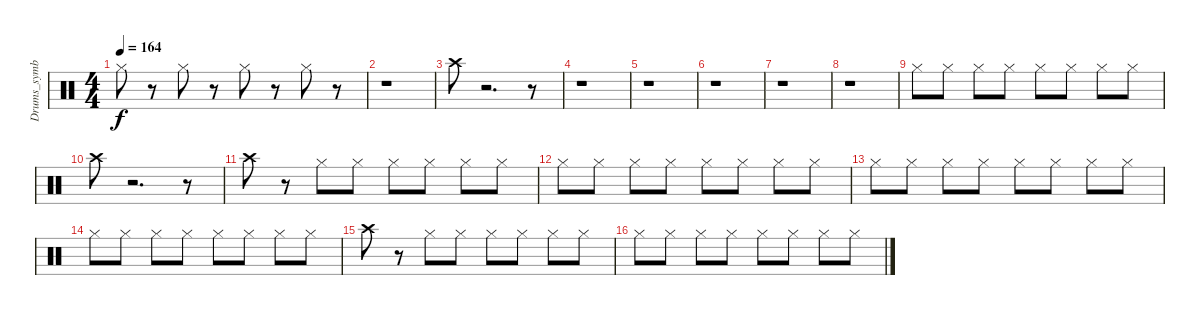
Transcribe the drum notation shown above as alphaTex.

\track ("Drums_symbal" "Drums_symb") {instrument percussion}
\staff {score}
\articulation defaults
\ts (4 4)
\tempo 164
\clef neutral
\ks c "Hi-Hat (closed)".8{dy f}
r.8 "Hi-Hat (closed)".8 r.8 "Hi-Hat (closed)".8 r.8 "Hi-Hat (closed)".8 r.8 |
r.1 |
"Crash high (hit)".8 r.2{d} r.8 |
r.1 |
r.1 |
r.1 |
r.1 |
r.1 |
"Hi-Hat (closed)".8 "Hi-Hat (closed)".8 "Hi-Hat (closed)".8 "Hi-Hat (closed)".8 "Hi-Hat (closed)".8 "Hi-Hat (closed)".8 "Hi-Hat (closed)".8 "Hi-Hat (closed)".8 |
"Crash high (hit)".8 r.2{d} r.8 |
"Crash high (hit)".8 r.8 "Hi-Hat (closed)".8 "Hi-Hat (closed)".8 "Hi-Hat (closed)".8 "Hi-Hat (closed)".8 "Hi-Hat (closed)".8 "Hi-Hat (closed)".8 |
"Hi-Hat (closed)".8 "Hi-Hat (closed)".8 "Hi-Hat (closed)".8 "Hi-Hat (closed)".8 "Hi-Hat (closed)".8 "Hi-Hat (closed)".8 "Hi-Hat (closed)".8 "Hi-Hat (closed)".8 |
"Hi-Hat (closed)".8 "Hi-Hat (closed)".8 "Hi-Hat (closed)".8 "Hi-Hat (closed)".8 "Hi-Hat (closed)".8 "Hi-Hat (closed)".8 "Hi-Hat (closed)".8 "Hi-Hat (closed)".8 |
"Hi-Hat (closed)".8 "Hi-Hat (closed)".8 "Hi-Hat (closed)".8 "Hi-Hat (closed)".8 "Hi-Hat (closed)".8 "Hi-Hat (closed)".8 "Hi-Hat (closed)".8 "Hi-Hat (closed)".8 |
"Crash high (hit)".8 r.8 "Hi-Hat (closed)".8 "Hi-Hat (closed)".8 "Hi-Hat (closed)".8 "Hi-Hat (closed)".8 "Hi-Hat (closed)".8 "Hi-Hat (closed)".8 |
"Hi-Hat (closed)".8 "Hi-Hat (closed)".8 "Hi-Hat (closed)".8 "Hi-Hat (closed)".8 "Hi-Hat (closed)".8 "Hi-Hat (closed)".8 "Hi-Hat (closed)".8 "Hi-Hat (closed)".8
